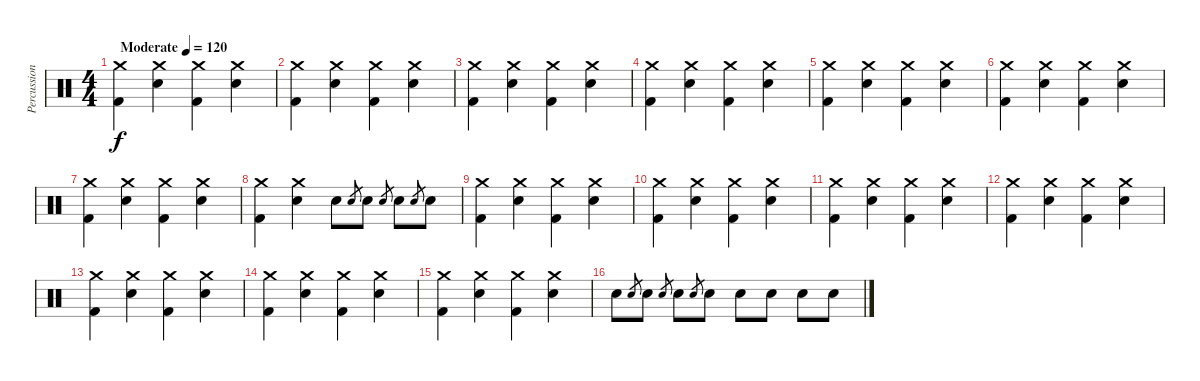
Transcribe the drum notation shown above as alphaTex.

\track ("Percussion" "Percussion") {solo instrument percussion}
\staff {score}
\articulation defaults
\ts (4 4)
\tempo (120 "Moderate")
\clef neutral
\ks c
("Crash medium (hit)" "Kick (hit) 2").4{dy f} ("Crash medium (hit)" "Snare (hit) 2").4 ("Crash medium (hit)" "Kick (hit) 2").4 ("Crash medium (hit)" "Snare (hit) 2").4 |
("Crash medium (hit)" "Kick (hit) 2").4 ("Crash medium (hit)" "Snare (hit) 2").4 ("Crash medium (hit)" "Kick (hit) 2").4 ("Crash medium (hit)" "Snare (hit) 2").4 |
("Crash medium (hit)" "Kick (hit) 2").4 ("Crash medium (hit)" "Snare (hit) 2").4 ("Crash medium (hit)" "Kick (hit) 2").4 ("Crash medium (hit)" "Snare (hit) 2").4 |
("Crash medium (hit)" "Kick (hit) 2").4 ("Crash medium (hit)" "Snare (hit) 2").4 ("Crash medium (hit)" "Kick (hit) 2").4 ("Crash medium (hit)" "Snare (hit) 2").4 |
("Crash medium (hit)" "Kick (hit) 2").4 ("Crash medium (hit)" "Snare (hit) 2").4 ("Crash medium (hit)" "Kick (hit) 2").4 ("Crash medium (hit)" "Snare (hit) 2").4 |
("Crash medium (hit)" "Kick (hit) 2").4 ("Crash medium (hit)" "Snare (hit) 2").4 ("Crash medium (hit)" "Kick (hit) 2").4 ("Crash medium (hit)" "Snare (hit) 2").4 |
("Crash medium (hit)" "Kick (hit) 2").4 ("Crash medium (hit)" "Snare (hit) 2").4 ("Crash medium (hit)" "Kick (hit) 2").4 ("Crash medium (hit)" "Snare (hit) 2").4 |
("Crash medium (hit)" "Kick (hit) 2").4 ("Crash medium (hit)" "Snare (hit) 2").4 "Snare (hit) 2".8 "Snare (hit) 2".8{gr} "Snare (hit) 2".8 "Snare (hit) 2".8{gr} "Snare (hit) 2".8 "Snare (hit) 2".8{gr} "Snare (hit) 2".8 |
("Crash medium (hit)" "Kick (hit) 2").4 ("Crash medium (hit)" "Snare (hit) 2").4 ("Crash medium (hit)" "Kick (hit) 2").4 ("Crash medium (hit)" "Snare (hit) 2").4 |
("Crash medium (hit)" "Kick (hit) 2").4 ("Crash medium (hit)" "Snare (hit) 2").4 ("Crash medium (hit)" "Kick (hit) 2").4 ("Crash medium (hit)" "Snare (hit) 2").4 |
("Crash medium (hit)" "Kick (hit) 2").4 ("Crash medium (hit)" "Snare (hit) 2").4 ("Crash medium (hit)" "Kick (hit) 2").4 ("Crash medium (hit)" "Snare (hit) 2").4 |
("Crash medium (hit)" "Kick (hit) 2").4 ("Crash medium (hit)" "Snare (hit) 2").4 ("Crash medium (hit)" "Kick (hit) 2").4 ("Crash medium (hit)" "Snare (hit) 2").4 |
("Crash medium (hit)" "Kick (hit) 2").4 ("Crash medium (hit)" "Snare (hit) 2").4 ("Crash medium (hit)" "Kick (hit) 2").4 ("Crash medium (hit)" "Snare (hit) 2").4 |
("Crash medium (hit)" "Kick (hit) 2").4 ("Crash medium (hit)" "Snare (hit) 2").4 ("Crash medium (hit)" "Kick (hit) 2").4 ("Crash medium (hit)" "Snare (hit) 2").4 |
("Crash medium (hit)" "Kick (hit) 2").4 ("Crash medium (hit)" "Snare (hit) 2").4 ("Crash medium (hit)" "Kick (hit) 2").4 ("Crash medium (hit)" "Snare (hit) 2").4 |
"Snare (hit) 2".8 "Snare (hit) 2".8{gr} "Snare (hit) 2".8 "Snare (hit) 2".8{gr} "Snare (hit) 2".8 "Snare (hit) 2".8{gr} "Snare (hit) 2".8 "Snare (hit) 2".8 "Snare (hit) 2".8 "Snare (hit) 2".8 "Snare (hit) 2".8
